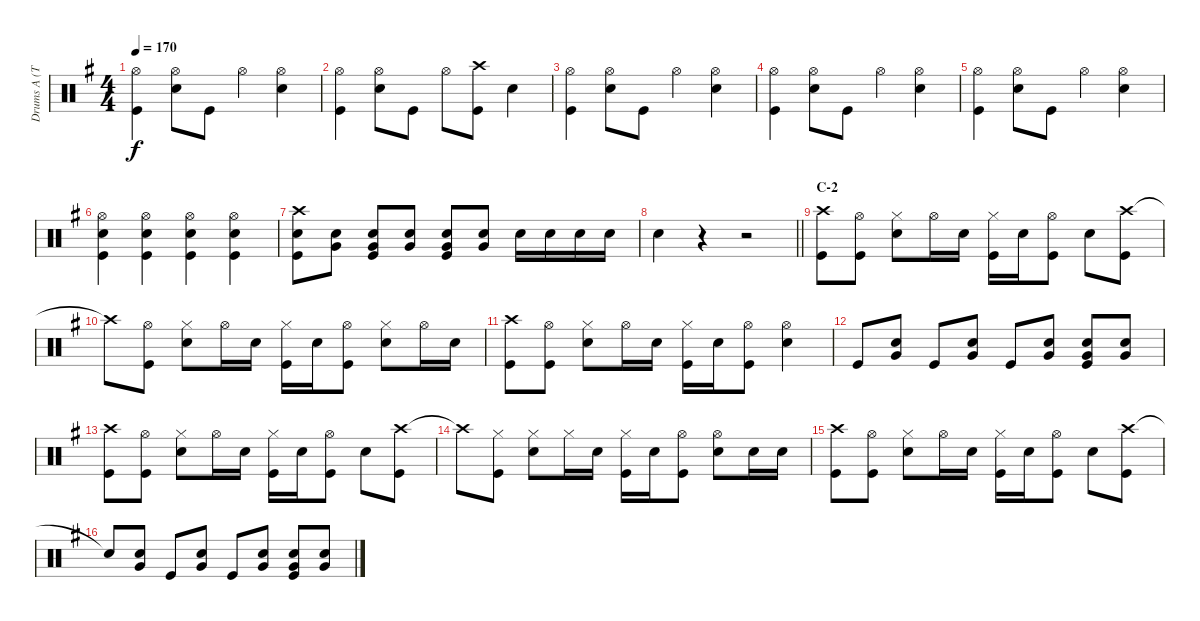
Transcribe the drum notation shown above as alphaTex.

\track ("Drums A (Tainaka Ritsu)" "Drums A (T") {instrument percussion}
\staff {score}
\articulation defaults
\ts (4 4)
\tempo 170
\clef neutral
\ks g
("Hi-Hat (open)" "Kick (hit)").4{dy f} ("Hi-Hat (open)" "Snare (hit) 2").8 "Kick (hit)".8 "Hi-Hat (open)".4 ("Hi-Hat (open)" "Snare (hit) 2").4 |
("Hi-Hat (open)" "Kick (hit)").4 ("Hi-Hat (open)" "Snare (hit) 2").8 "Kick (hit)".8 "Hi-Hat (open)".8 ("Crash high (hit)" "Kick (hit)").8 "Snare (hit) 2".4 |
("Hi-Hat (open)" "Kick (hit)").4 ("Hi-Hat (open)" "Snare (hit) 2").8 "Kick (hit)".8 "Hi-Hat (open)".4 ("Hi-Hat (open)" "Snare (hit) 2").4 |
("Hi-Hat (open)" "Kick (hit)").4 ("Hi-Hat (open)" "Snare (hit) 2").8 "Kick (hit)".8 "Hi-Hat (open)".4 ("Hi-Hat (open)" "Snare (hit) 2").4 |
("Hi-Hat (open)" "Kick (hit)").4 ("Hi-Hat (open)" "Snare (hit) 2").8 "Kick (hit)".8 "Hi-Hat (open)".4 ("Hi-Hat (open)" "Snare (hit) 2").4 |
("Hi-Hat (open)" "Snare (hit) 2" "Kick (hit)").4 ("Hi-Hat (open)" "Snare (hit) 2" "Kick (hit)").4 ("Hi-Hat (open)" "Snare (hit) 2" "Kick (hit)").4 ("Hi-Hat (open)" "Snare (hit) 2" "Kick (hit)").4 |
("Crash high (hit)" "Snare (hit) 2" "Kick (hit)").8 ("Snare (hit) 2" "Very Low Tom (hit)").8 ("Snare (hit) 2" "Very Low Tom (hit)" "Kick (hit)").8 ("Snare (hit) 2" "Very Low Tom (hit)").8 ("Snare (hit) 2" "Very Low Tom (hit)" "Kick (hit)").8 ("Snare (hit) 2" "Very Low Tom (hit)").8 "Snare (hit) 2".16 "Snare (hit) 2".16 "Snare (hit) 2".16 "Snare (hit) 2".16 |
\barLineRight lightlight "Snare (hit) 2".4
r.4 r.2 |
\section ("" "C-2")
("Crash high (hit)" "Kick (hit)").8 ("Hi-Hat (open)" "Kick (hit)").8 ("Hi-Hat (closed)" "Snare (hit) 2").8 "Hi-Hat (open)".16 "Snare (hit) 2".16 ("Hi-Hat (closed)" "Kick (hit)").16 "Snare (hit) 2".16 ("Hi-Hat (open)" "Kick (hit)").8 "Snare (hit) 2".8 ("Crash high (hit)" "Kick (hit)").8 |
"Crash high (hit)"{t}.8 ("Hi-Hat (open)" "Kick (hit)").8 ("Hi-Hat (closed)" "Snare (hit) 2").8 "Hi-Hat (open)".16 "Snare (hit) 2".16 ("Hi-Hat (closed)" "Kick (hit)").16 "Snare (hit) 2".16 ("Hi-Hat (open)" "Kick (hit)").8 ("Hi-Hat (closed)" "Snare (hit) 2").8 "Hi-Hat (open)".16 "Snare (hit) 2".16 |
("Crash high (hit)" "Kick (hit)").8 ("Hi-Hat (open)" "Kick (hit)").8 ("Hi-Hat (closed)" "Snare (hit) 2").8 "Hi-Hat (open)".16 "Snare (hit) 2".16 ("Hi-Hat (closed)" "Kick (hit)").16 "Snare (hit) 2".16 ("Hi-Hat (open)" "Kick (hit)").8 ("Hi-Hat (open)" "Snare (hit) 2").4 |
"Kick (hit)".8 ("Snare (hit) 2" "Very Low Tom (hit)").8 "Kick (hit)".8 ("Snare (hit) 2" "Very Low Tom (hit)").8 "Kick (hit)".8 ("Snare (hit) 2" "Very Low Tom (hit)").8 ("Snare (hit) 2" "Very Low Tom (hit)" "Kick (hit)").8 ("Snare (hit) 2" "Very Low Tom (hit)").8 |
("Crash high (hit)" "Kick (hit)").8 ("Hi-Hat (open)" "Kick (hit)").8 ("Hi-Hat (closed)" "Snare (hit) 2").8 "Hi-Hat (open)".16 "Snare (hit) 2".16 ("Hi-Hat (closed)" "Kick (hit)").16 "Snare (hit) 2".16 ("Hi-Hat (open)" "Kick (hit)").8 "Snare (hit) 2".8 ("Crash high (hit)" "Kick (hit)").8 |
"Crash high (hit)"{t}.8 ("Hi-Hat (closed)" "Kick (hit)").8 ("Hi-Hat (closed)" "Snare (hit) 2").8 "Hi-Hat (closed)".16 "Snare (hit) 2".16 ("Hi-Hat (closed)" "Kick (hit)").16 "Snare (hit) 2".16 ("Hi-Hat (open)" "Kick (hit)").8 ("Hi-Hat (open)" "Snare (hit) 2").8 "Snare (hit) 2".16 "Snare (hit) 2".16 |
("Crash high (hit)" "Kick (hit)").8 ("Hi-Hat (open)" "Kick (hit)").8 ("Hi-Hat (closed)" "Snare (hit) 2").8 "Hi-Hat (open)".16 "Snare (hit) 2".16 ("Hi-Hat (closed)" "Kick (hit)").16 "Snare (hit) 2".16 ("Hi-Hat (open)" "Kick (hit)").8 "Snare (hit) 2".8 ("Crash high (hit)" "Kick (hit)").8 |
"Snare (hit)"{t}.8 ("Snare (hit) 2" "Very Low Tom (hit)").8 "Kick (hit)".8 ("Snare (hit) 2" "Very Low Tom (hit)").8 "Kick (hit)".8 ("Snare (hit) 2" "Very Low Tom (hit)").8 ("Snare (hit) 2" "Very Low Tom (hit)" "Kick (hit)").8 ("Snare (hit) 2" "Very Low Tom (hit)").8
